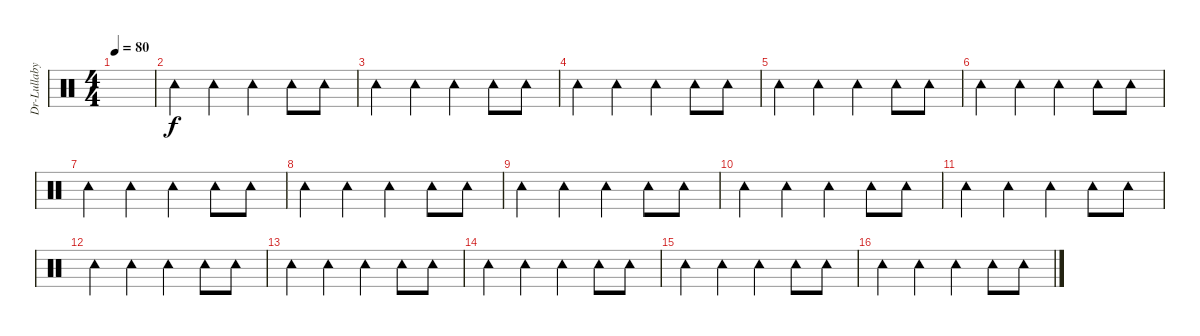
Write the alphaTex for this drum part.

\track ("Dr-Lullaby" "Dr-Lullaby") {instrument percussion}
\staff {score}
\articulation defaults
\ts (4 4)
\tempo 80
\clef neutral
\ks c
|
"Tambourine (hit)".4 "Tambourine (hit)".4 "Tambourine (hit)".4 "Tambourine (hit)".8 "Tambourine (hit)".8 |
"Tambourine (hit)".4 "Tambourine (hit)".4 "Tambourine (hit)".4 "Tambourine (hit)".8 "Tambourine (hit)".8 |
"Tambourine (hit)".4 "Tambourine (hit)".4 "Tambourine (hit)".4 "Tambourine (hit)".8 "Tambourine (hit)".8 |
"Tambourine (hit)".4 "Tambourine (hit)".4 "Tambourine (hit)".4 "Tambourine (hit)".8 "Tambourine (hit)".8 |
"Tambourine (hit)".4 "Tambourine (hit)".4 "Tambourine (hit)".4 "Tambourine (hit)".8 "Tambourine (hit)".8 |
"Tambourine (hit)".4 "Tambourine (hit)".4 "Tambourine (hit)".4 "Tambourine (hit)".8 "Tambourine (hit)".8 |
"Tambourine (hit)".4 "Tambourine (hit)".4 "Tambourine (hit)".4 "Tambourine (hit)".8 "Tambourine (hit)".8 |
"Tambourine (hit)".4 "Tambourine (hit)".4 "Tambourine (hit)".4 "Tambourine (hit)".8 "Tambourine (hit)".8 |
"Tambourine (hit)".4 "Tambourine (hit)".4 "Tambourine (hit)".4 "Tambourine (hit)".8 "Tambourine (hit)".8 |
"Tambourine (hit)".4 "Tambourine (hit)".4 "Tambourine (hit)".4 "Tambourine (hit)".8 "Tambourine (hit)".8 |
"Tambourine (hit)".4 "Tambourine (hit)".4 "Tambourine (hit)".4 "Tambourine (hit)".8 "Tambourine (hit)".8 |
"Tambourine (hit)".4 "Tambourine (hit)".4 "Tambourine (hit)".4 "Tambourine (hit)".8 "Tambourine (hit)".8 |
"Tambourine (hit)".4 "Tambourine (hit)".4 "Tambourine (hit)".4 "Tambourine (hit)".8 "Tambourine (hit)".8 |
"Tambourine (hit)".4 "Tambourine (hit)".4 "Tambourine (hit)".4 "Tambourine (hit)".8 "Tambourine (hit)".8 |
"Tambourine (hit)".4 "Tambourine (hit)".4 "Tambourine (hit)".4 "Tambourine (hit)".8 "Tambourine (hit)".8
